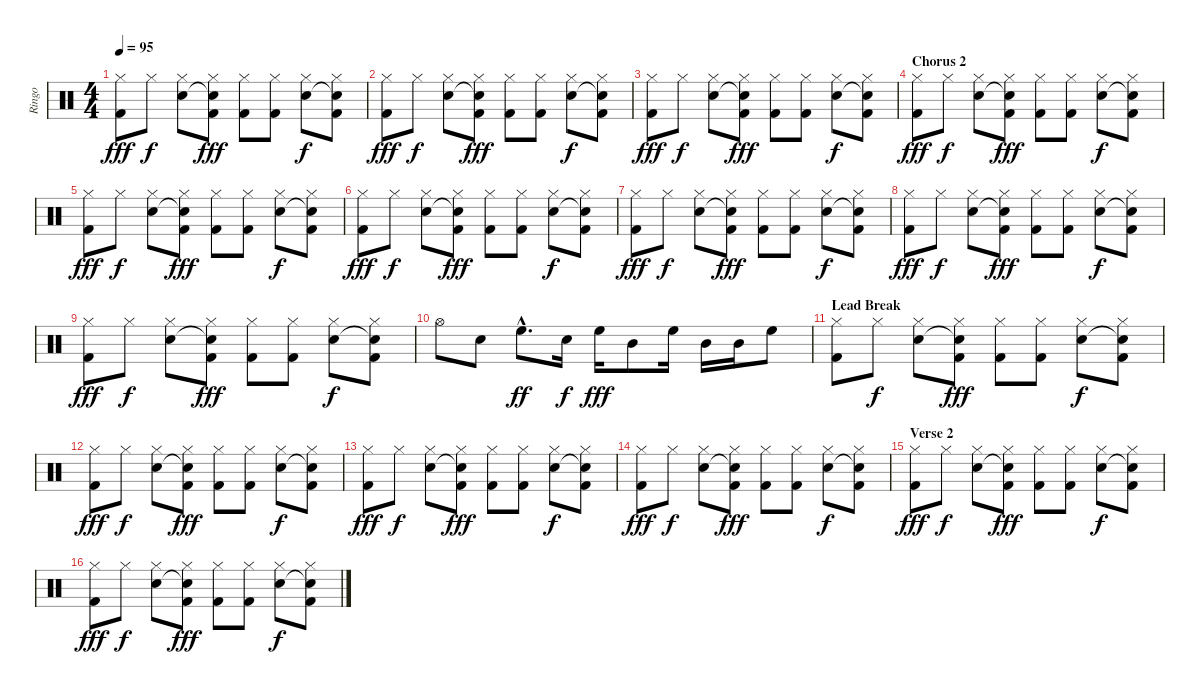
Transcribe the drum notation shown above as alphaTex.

\track ("Ringo" "Ringo") {instrument percussion}
\staff {score}
\articulation defaults
\ts (4 4)
\tempo 95
\clef neutral
\ks c
("Hi-Hat (closed)" "Kick (hit) 2").8{dy fff} "Hi-Hat (closed)".8{dy f} ("Hi-Hat (closed)" "Snare (hit) 2").8 ("Hi-Hat (closed)" "Snare (hit)"{t} "Kick (hit) 2").8{dy fff} ("Hi-Hat (closed)" "Kick (hit) 2").8 ("Hi-Hat (closed)" "Kick (hit) 2").8 ("Hi-Hat (closed)" "Snare (hit) 2").8{dy f} ("Hi-Hat (closed)" "Snare (hit)"{t} "Kick (hit) 2").8 |
("Hi-Hat (closed)" "Kick (hit) 2").8{dy fff} "Hi-Hat (closed)".8{dy f} ("Hi-Hat (closed)" "Snare (hit) 2").8 ("Hi-Hat (closed)" "Snare (hit)"{t} "Kick (hit) 2").8{dy fff} ("Hi-Hat (closed)" "Kick (hit) 2").8 ("Hi-Hat (closed)" "Kick (hit) 2").8 ("Hi-Hat (closed)" "Snare (hit) 2").8{dy f} ("Hi-Hat (closed)" "Snare (hit)"{t} "Kick (hit) 2").8 |
("Hi-Hat (closed)" "Kick (hit) 2").8{dy fff} "Hi-Hat (closed)".8{dy f} ("Hi-Hat (closed)" "Snare (hit) 2").8 ("Hi-Hat (closed)" "Snare (hit)"{t} "Kick (hit) 2").8{dy fff} ("Hi-Hat (closed)" "Kick (hit) 2").8 ("Hi-Hat (closed)" "Kick (hit) 2").8 ("Hi-Hat (closed)" "Snare (hit) 2").8{dy f} ("Hi-Hat (closed)" "Snare (hit)"{t} "Kick (hit) 2").8 |
\section ("" "Chorus 2")
("Hi-Hat (closed)" "Kick (hit) 2").8{dy fff} "Hi-Hat (closed)".8{dy f} ("Hi-Hat (closed)" "Snare (hit) 2").8 ("Hi-Hat (closed)" "Snare (hit)"{t} "Kick (hit) 2").8{dy fff} ("Hi-Hat (closed)" "Kick (hit) 2").8 ("Hi-Hat (closed)" "Kick (hit) 2").8 ("Hi-Hat (closed)" "Snare (hit) 2").8{dy f} ("Hi-Hat (closed)" "Snare (hit)"{t} "Kick (hit) 2").8 |
("Hi-Hat (closed)" "Kick (hit) 2").8{dy fff} "Hi-Hat (closed)".8{dy f} ("Hi-Hat (closed)" "Snare (hit) 2").8 ("Hi-Hat (closed)" "Snare (hit)"{t} "Kick (hit) 2").8{dy fff} ("Hi-Hat (closed)" "Kick (hit) 2").8 ("Hi-Hat (closed)" "Kick (hit) 2").8 ("Hi-Hat (closed)" "Snare (hit) 2").8{dy f} ("Hi-Hat (closed)" "Snare (hit)"{t} "Kick (hit) 2").8 |
("Hi-Hat (closed)" "Kick (hit) 2").8{dy fff} "Hi-Hat (closed)".8{dy f} ("Hi-Hat (closed)" "Snare (hit) 2").8 ("Hi-Hat (closed)" "Snare (hit)"{t} "Kick (hit) 2").8{dy fff} ("Hi-Hat (closed)" "Kick (hit) 2").8 ("Hi-Hat (closed)" "Kick (hit) 2").8 ("Hi-Hat (closed)" "Snare (hit) 2").8{dy f} ("Hi-Hat (closed)" "Snare (hit)"{t} "Kick (hit) 2").8 |
("Hi-Hat (closed)" "Kick (hit) 2").8{dy fff} "Hi-Hat (closed)".8{dy f} ("Hi-Hat (closed)" "Snare (hit) 2").8 ("Hi-Hat (closed)" "Snare (hit)"{t} "Kick (hit) 2").8{dy fff} ("Hi-Hat (closed)" "Kick (hit) 2").8 ("Hi-Hat (closed)" "Kick (hit) 2").8 ("Hi-Hat (closed)" "Snare (hit) 2").8{dy f} ("Hi-Hat (closed)" "Snare (hit)"{t} "Kick (hit) 2").8 |
("Hi-Hat (closed)" "Kick (hit) 2").8{dy fff} "Hi-Hat (closed)".8{dy f} ("Hi-Hat (closed)" "Snare (hit) 2").8 ("Hi-Hat (closed)" "Snare (hit)"{t} "Kick (hit) 2").8{dy fff} ("Hi-Hat (closed)" "Kick (hit) 2").8 ("Hi-Hat (closed)" "Kick (hit) 2").8 ("Hi-Hat (closed)" "Snare (hit) 2").8{dy f} ("Hi-Hat (closed)" "Snare (hit)"{t} "Kick (hit) 2").8 |
("Hi-Hat (closed)" "Kick (hit) 2").8{dy fff} "Hi-Hat (closed)".8{dy f} ("Hi-Hat (closed)" "Snare (hit) 2").8 ("Hi-Hat (closed)" "Snare (hit)"{t} "Kick (hit) 2").8{dy fff} ("Hi-Hat (closed)" "Kick (hit) 2").8 ("Hi-Hat (closed)" "Kick (hit) 2").8 ("Hi-Hat (closed)" "Snare (hit) 2").8{dy f} ("Hi-Hat (closed)" "Snare (hit)"{t} "Kick (hit) 2").8 |
"Hi-Hat (open)".8 "Snare (hit) 2".8 "High Floor Tom (hit)"{hac}.8{d dy ff} "Snare (hit) 2".16{dy f} "High Floor Tom (hit)".16{dy fff} "Mid Tom (hit)".8 "High Floor Tom (hit)".16 "Mid Tom (hit)".16 "Mid Tom (hit)".16 "High Floor Tom (hit)".8 |
\section ("" "Lead Break")
("Hi-Hat (closed)" "Kick (hit) 2").8 "Hi-Hat (closed)".8{dy f} ("Hi-Hat (closed)" "Snare (hit) 2").8 ("Hi-Hat (closed)" "Snare (hit)"{t} "Kick (hit) 2").8{dy fff} ("Hi-Hat (closed)" "Kick (hit) 2").8 ("Hi-Hat (closed)" "Kick (hit) 2").8 ("Hi-Hat (closed)" "Snare (hit) 2").8{dy f} ("Hi-Hat (closed)" "Snare (hit)"{t} "Kick (hit) 2").8 |
("Hi-Hat (closed)" "Kick (hit) 2").8{dy fff} "Hi-Hat (closed)".8{dy f} ("Hi-Hat (closed)" "Snare (hit) 2").8 ("Hi-Hat (closed)" "Snare (hit)"{t} "Kick (hit) 2").8{dy fff} ("Hi-Hat (closed)" "Kick (hit) 2").8 ("Hi-Hat (closed)" "Kick (hit) 2").8 ("Hi-Hat (closed)" "Snare (hit) 2").8{dy f} ("Hi-Hat (closed)" "Snare (hit)"{t} "Kick (hit) 2").8 |
("Hi-Hat (closed)" "Kick (hit) 2").8{dy fff} "Hi-Hat (closed)".8{dy f} ("Hi-Hat (closed)" "Snare (hit) 2").8 ("Hi-Hat (closed)" "Snare (hit)"{t} "Kick (hit) 2").8{dy fff} ("Hi-Hat (closed)" "Kick (hit) 2").8 ("Hi-Hat (closed)" "Kick (hit) 2").8 ("Hi-Hat (closed)" "Snare (hit) 2").8{dy f} ("Hi-Hat (closed)" "Snare (hit)"{t} "Kick (hit) 2").8 |
("Hi-Hat (closed)" "Kick (hit) 2").8{dy fff} "Hi-Hat (closed)".8{dy f} ("Hi-Hat (closed)" "Snare (hit) 2").8 ("Hi-Hat (closed)" "Snare (hit)"{t} "Kick (hit) 2").8{dy fff} ("Hi-Hat (closed)" "Kick (hit) 2").8 ("Hi-Hat (closed)" "Kick (hit) 2").8 ("Hi-Hat (closed)" "Snare (hit) 2").8{dy f} ("Hi-Hat (closed)" "Snare (hit)"{t} "Kick (hit) 2").8 |
\section ("" "Verse 2")
("Hi-Hat (closed)" "Kick (hit) 2").8{dy fff} "Hi-Hat (closed)".8{dy f} ("Hi-Hat (closed)" "Snare (hit) 2").8 ("Hi-Hat (closed)" "Snare (hit)"{t} "Kick (hit) 2").8{dy fff} ("Hi-Hat (closed)" "Kick (hit) 2").8 ("Hi-Hat (closed)" "Kick (hit) 2").8 ("Hi-Hat (closed)" "Snare (hit) 2").8{dy f} ("Hi-Hat (closed)" "Snare (hit)"{t} "Kick (hit) 2").8 |
("Hi-Hat (closed)" "Kick (hit) 2").8{dy fff} "Hi-Hat (closed)".8{dy f} ("Hi-Hat (closed)" "Snare (hit) 2").8 ("Hi-Hat (closed)" "Snare (hit)"{t} "Kick (hit) 2").8{dy fff} ("Hi-Hat (closed)" "Kick (hit) 2").8 ("Hi-Hat (closed)" "Kick (hit) 2").8 ("Hi-Hat (closed)" "Snare (hit) 2").8{dy f} ("Hi-Hat (closed)" "Snare (hit)"{t} "Kick (hit) 2").8
